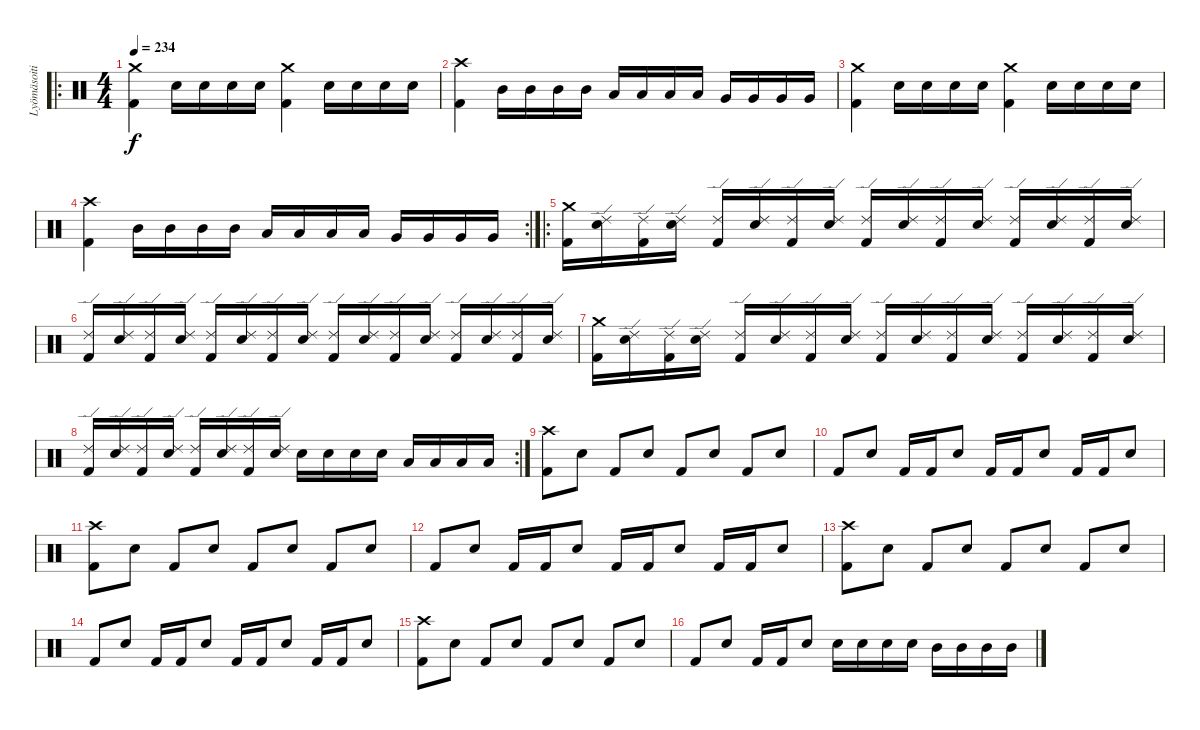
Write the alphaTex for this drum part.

\track ("Lyömäsoitin" "Lyömäsoiti") {instrument percussion}
\staff {score}
\articulation defaults
\ro
\ts (4 4)
\tempo 234
\clef neutral
\ks c
("Crash medium (hit)" "Kick (hit) 2").4{dy f} "Electric Snare (hit)".16 "Electric Snare (hit)".16 "Electric Snare (hit)".16 "Electric Snare (hit)".16 ("Crash medium (hit)" "Kick (hit) 2").4 "Electric Snare (hit)".16 "Electric Snare (hit)".16 "Electric Snare (hit)".16 "Electric Snare (hit)".16 |
("Crash high (hit)" "Kick (hit) 2").4 "Mid Tom (hit)".16 "Mid Tom (hit)".16 "Mid Tom (hit)".16 "Mid Tom (hit)".16 "Low Tom (hit)".16 "Low Tom (hit)".16 "Low Tom (hit)".16 "Low Tom (hit)".16 "Very Low Tom (hit)".16 "Very Low Tom (hit)".16 "Very Low Tom (hit)".16 "Very Low Tom (hit)".16 |
("Crash medium (hit)" "Kick (hit) 2").4 "Electric Snare (hit)".16 "Electric Snare (hit)".16 "Electric Snare (hit)".16 "Electric Snare (hit)".16 ("Crash medium (hit)" "Kick (hit) 2").4 "Electric Snare (hit)".16 "Electric Snare (hit)".16 "Electric Snare (hit)".16 "Electric Snare (hit)".16 |
\rc 2
("Crash high (hit)" "Kick (hit) 2").4 "Mid Tom (hit)".16 "Mid Tom (hit)".16 "Mid Tom (hit)".16 "Mid Tom (hit)".16 "Low Tom (hit)".16 "Low Tom (hit)".16 "Low Tom (hit)".16 "Low Tom (hit)".16 "Very Low Tom (hit)".16 "Very Low Tom (hit)".16 "Very Low Tom (hit)".16 "Very Low Tom (hit)".16 |
\ro
("Crash medium (hit)" "Kick (hit) 2").16 ("Ride (edge) 2" "Electric Snare (hit)").16 ("Ride (edge) 2" "Kick (hit) 2").16 ("Ride (edge) 2" "Electric Snare (hit)").16 ("Ride (edge) 2" "Kick (hit) 2").16 ("Ride (edge) 2" "Electric Snare (hit)").16 ("Ride (edge) 2" "Kick (hit) 2").16 ("Ride (edge) 2" "Electric Snare (hit)").16 ("Ride (edge) 2" "Kick (hit) 2").16 ("Ride (edge) 2" "Electric Snare (hit)").16 ("Ride (edge) 2" "Kick (hit) 2").16 ("Ride (edge) 2" "Electric Snare (hit)").16 ("Ride (edge) 2" "Kick (hit) 2").16 ("Ride (edge) 2" "Electric Snare (hit)").16 ("Ride (edge) 2" "Kick (hit) 2").16 ("Ride (edge) 2" "Electric Snare (hit)").16 |
("Ride (edge) 2" "Kick (hit) 2").16 ("Ride (edge) 2" "Electric Snare (hit)").16 ("Ride (edge) 2" "Kick (hit) 2").16 ("Ride (edge) 2" "Electric Snare (hit)").16 ("Ride (edge) 2" "Kick (hit) 2").16 ("Ride (edge) 2" "Electric Snare (hit)").16 ("Ride (edge) 2" "Kick (hit) 2").16 ("Ride (edge) 2" "Electric Snare (hit)").16 ("Ride (edge) 2" "Kick (hit) 2").16 ("Ride (edge) 2" "Electric Snare (hit)").16 ("Ride (edge) 2" "Kick (hit) 2").16 ("Ride (edge) 2" "Electric Snare (hit)").16 ("Ride (edge) 2" "Kick (hit) 2").16 ("Ride (edge) 2" "Electric Snare (hit)").16 ("Ride (edge) 2" "Kick (hit) 2").16 ("Ride (edge) 2" "Electric Snare (hit)").16 |
("Crash medium (hit)" "Kick (hit) 2").16 ("Ride (edge) 2" "Electric Snare (hit)").16 ("Ride (edge) 2" "Kick (hit) 2").16 ("Ride (edge) 2" "Electric Snare (hit)").16 ("Ride (edge) 2" "Kick (hit) 2").16 ("Ride (edge) 2" "Electric Snare (hit)").16 ("Ride (edge) 2" "Kick (hit) 2").16 ("Ride (edge) 2" "Electric Snare (hit)").16 ("Ride (edge) 2" "Kick (hit) 2").16 ("Ride (edge) 2" "Electric Snare (hit)").16 ("Ride (edge) 2" "Kick (hit) 2").16 ("Ride (edge) 2" "Electric Snare (hit)").16 ("Ride (edge) 2" "Kick (hit) 2").16 ("Ride (edge) 2" "Electric Snare (hit)").16 ("Ride (edge) 2" "Kick (hit) 2").16 ("Ride (edge) 2" "Electric Snare (hit)").16 |
\rc 2
("Ride (edge) 2" "Kick (hit) 2").16 ("Ride (edge) 2" "Electric Snare (hit)").16 ("Ride (edge) 2" "Kick (hit) 2").16 ("Ride (edge) 2" "Electric Snare (hit)").16 ("Ride (edge) 2" "Kick (hit) 2").16 ("Ride (edge) 2" "Electric Snare (hit)").16 ("Ride (edge) 2" "Kick (hit) 2").16 ("Ride (edge) 2" "Electric Snare (hit)").16 "Electric Snare (hit)".16 "Electric Snare (hit)".16 "Electric Snare (hit)".16 "Electric Snare (hit)".16 "Low Tom (hit)".16 "Low Tom (hit)".16 "Low Tom (hit)".16 "Low Tom (hit)".16 |
("Crash high (hit)" "Kick (hit) 2").8 "Snare (hit) 2".8 "Kick (hit) 2".8 "Snare (hit) 2".8 "Kick (hit) 2".8 "Snare (hit) 2".8 "Kick (hit) 2".8 "Snare (hit) 2".8 |
"Kick (hit) 2".8 "Snare (hit) 2".8 "Kick (hit) 2".16 "Kick (hit) 2".16 "Snare (hit) 2".8 "Kick (hit) 2".16 "Kick (hit) 2".16 "Snare (hit) 2".8 "Kick (hit) 2".16 "Kick (hit) 2".16 "Snare (hit) 2".8 |
("Crash high (hit)" "Kick (hit) 2").8 "Snare (hit) 2".8 "Kick (hit) 2".8 "Snare (hit) 2".8 "Kick (hit) 2".8 "Snare (hit) 2".8 "Kick (hit) 2".8 "Snare (hit) 2".8 |
"Kick (hit) 2".8 "Snare (hit) 2".8 "Kick (hit) 2".16 "Kick (hit) 2".16 "Snare (hit) 2".8 "Kick (hit) 2".16 "Kick (hit) 2".16 "Snare (hit) 2".8 "Kick (hit) 2".16 "Kick (hit) 2".16 "Snare (hit) 2".8 |
("Crash high (hit)" "Kick (hit) 2").8 "Snare (hit) 2".8 "Kick (hit) 2".8 "Snare (hit) 2".8 "Kick (hit) 2".8 "Snare (hit) 2".8 "Kick (hit) 2".8 "Snare (hit) 2".8 |
"Kick (hit) 2".8 "Snare (hit) 2".8 "Kick (hit) 2".16 "Kick (hit) 2".16 "Snare (hit) 2".8 "Kick (hit) 2".16 "Kick (hit) 2".16 "Snare (hit) 2".8 "Kick (hit) 2".16 "Kick (hit) 2".16 "Snare (hit) 2".8 |
("Crash high (hit)" "Kick (hit) 2").8 "Snare (hit) 2".8 "Kick (hit) 2".8 "Snare (hit) 2".8 "Kick (hit) 2".8 "Snare (hit) 2".8 "Kick (hit) 2".8 "Snare (hit) 2".8 |
"Kick (hit) 2".8 "Snare (hit) 2".8 "Kick (hit) 2".16 "Kick (hit) 2".16 "Snare (hit) 2".8 "Electric Snare (hit)".16 "Electric Snare (hit)".16 "Electric Snare (hit)".16 "Electric Snare (hit)".16 "Mid Tom (hit)".16 "Mid Tom (hit)".16 "Mid Tom (hit)".16 "Mid Tom (hit)".16
